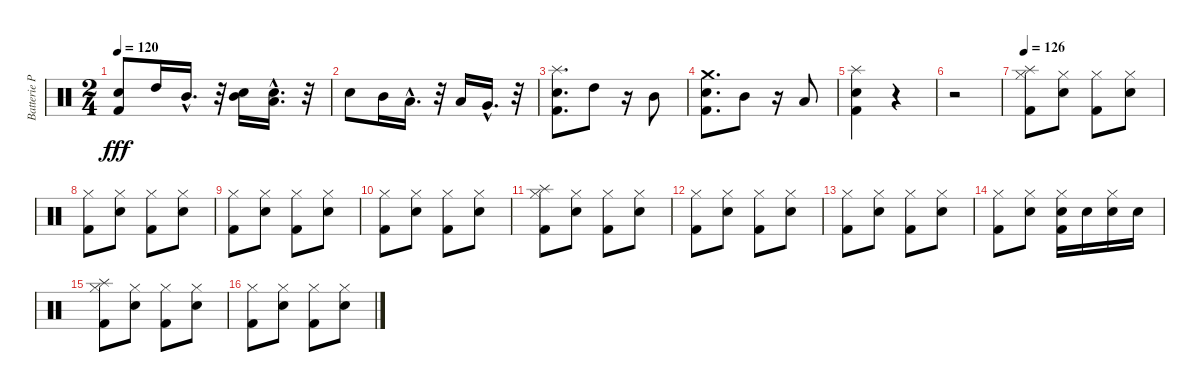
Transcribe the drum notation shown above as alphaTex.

\track ("Batterie Pako" "Batterie P") {instrument percussion}
\staff {score}
\articulation defaults
\ts (2 4)
\tempo 120
\clef neutral
\ks c
("Kick (hit) 2" "Electric Snare (hit)").8{dy fff} "High Tom (hit)".16 "Mid Tom (hit)"{hac}.16{d} r.32 ("Mid Tom (hit)" "Electric Snare (hit)").16 ("Low Tom (hit)"{hac} "Electric Snare (hit)"{hac}).16{d} r.32 |
"Electric Snare (hit)".8 "Mid Tom (hit)".16 "Low Tom (hit)"{hac}.16{d} r.32 "Low Tom (hit)".16 "Very Low Tom (hit)"{hac}.16{d} r.32 |
("Kick (hit) 2" "Electric Snare (hit)" "Splash (hit)").8{d} "High Tom (hit)".8 r.16 "Mid Tom (hit)".8 |
("Kick (hit) 2" "Electric Snare (hit)" "Crash medium (hit)").8{d} "Mid Tom (hit)".8 r.16 "Low Tom (hit)".8 |
("Kick (hit) 2" "Splash (hit)" "Electric Snare (hit)").4 r.4 |
r.2 |
\tempo 126
("Splash (hit)" "Hi-Hat (closed)" "Kick (hit) 2").8 ("Hi-Hat (closed)" "Electric Snare (hit)").8 ("Hi-Hat (closed)" "Kick (hit) 2").8 ("Hi-Hat (closed)" "Electric Snare (hit)").8 |
("Hi-Hat (closed)" "Kick (hit) 2").8 ("Hi-Hat (closed)" "Electric Snare (hit)").8 ("Hi-Hat (closed)" "Kick (hit) 2").8 ("Hi-Hat (closed)" "Electric Snare (hit)").8 |
("Hi-Hat (closed)" "Kick (hit) 2").8 ("Hi-Hat (closed)" "Electric Snare (hit)").8 ("Hi-Hat (closed)" "Kick (hit) 2").8 ("Hi-Hat (closed)" "Electric Snare (hit)").8 |
("Hi-Hat (closed)" "Kick (hit) 2").8 ("Hi-Hat (closed)" "Electric Snare (hit)").8 ("Hi-Hat (closed)" "Kick (hit) 2").8 ("Hi-Hat (closed)" "Electric Snare (hit)").8 |
("Splash (hit)" "Hi-Hat (closed)" "Kick (hit) 2").8 ("Hi-Hat (closed)" "Electric Snare (hit)").8 ("Hi-Hat (closed)" "Kick (hit) 2").8 ("Hi-Hat (closed)" "Electric Snare (hit)").8 |
("Hi-Hat (closed)" "Kick (hit) 2").8 ("Hi-Hat (closed)" "Electric Snare (hit)").8 ("Hi-Hat (closed)" "Kick (hit) 2").8 ("Hi-Hat (closed)" "Electric Snare (hit)").8 |
("Hi-Hat (closed)" "Kick (hit) 2").8 ("Hi-Hat (closed)" "Electric Snare (hit)").8 ("Hi-Hat (closed)" "Kick (hit) 2").8 ("Hi-Hat (closed)" "Electric Snare (hit)").8 |
("Hi-Hat (closed)" "Kick (hit) 2").8 ("Hi-Hat (closed)" "Electric Snare (hit)").8 ("Electric Snare (hit)" "Hi-Hat (closed)" "Kick (hit) 2").16 "Electric Snare (hit)".16 ("Electric Snare (hit)" "Hi-Hat (closed)").16 "Electric Snare (hit)".16 |
("Splash (hit)" "Hi-Hat (closed)" "Kick (hit) 2").8 ("Hi-Hat (closed)" "Electric Snare (hit)").8 ("Hi-Hat (closed)" "Kick (hit) 2").8 ("Hi-Hat (closed)" "Electric Snare (hit)").8 |
("Hi-Hat (closed)" "Kick (hit) 2").8 ("Hi-Hat (closed)" "Electric Snare (hit)").8 ("Hi-Hat (closed)" "Kick (hit) 2").8 ("Hi-Hat (closed)" "Electric Snare (hit)").8
